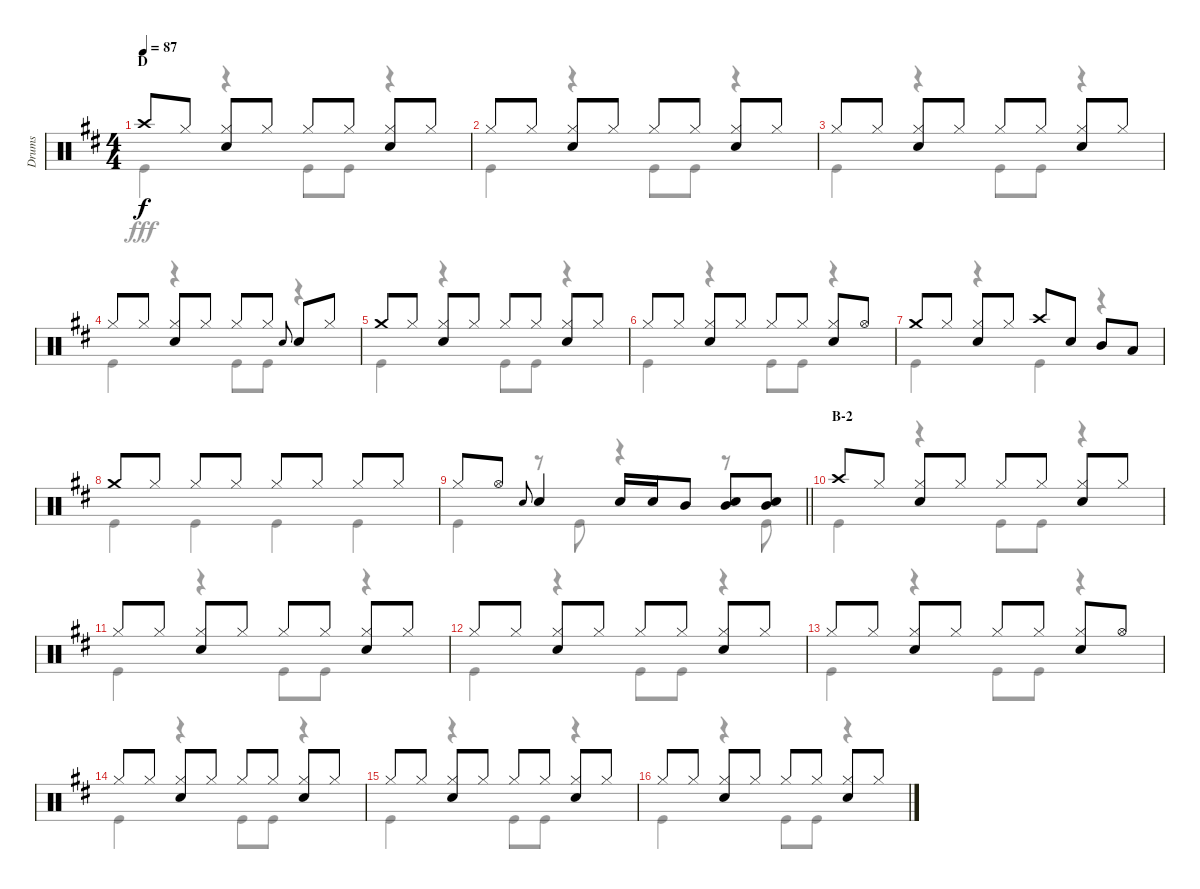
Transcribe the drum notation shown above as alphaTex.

\track ("Drums" "Drums") {instrument percussion}
\staff {score}
\articulation defaults
\voice
\ts (4 4)
\section ("" "D")
\tempo 87
\clef neutral
\ks d "Crash high (hit)".8{dy f} "Hi-Hat (closed)".8
("Hi-Hat (closed)" "Snare (hit) 2").8 "Hi-Hat (closed)".8 "Hi-Hat (closed)".8 "Hi-Hat (closed)".8 ("Hi-Hat (closed)" "Snare (hit) 2").8 "Hi-Hat (closed)".8 |
"Hi-Hat (closed)".8 "Hi-Hat (closed)".8 ("Hi-Hat (closed)" "Snare (hit) 2").8 "Hi-Hat (closed)".8 "Hi-Hat (closed)".8 "Hi-Hat (closed)".8 ("Hi-Hat (closed)" "Snare (hit) 2").8 "Hi-Hat (closed)".8 |
"Hi-Hat (closed)".8 "Hi-Hat (closed)".8 ("Hi-Hat (closed)" "Snare (hit) 2").8 "Hi-Hat (closed)".8 "Hi-Hat (closed)".8 "Hi-Hat (closed)".8 ("Hi-Hat (closed)" "Snare (hit) 2").8 "Hi-Hat (closed)".8 |
"Hi-Hat (closed)".8 "Hi-Hat (closed)".8 ("Hi-Hat (closed)" "Snare (hit) 2").8 "Hi-Hat (closed)".8 "Hi-Hat (closed)".8 "Hi-Hat (closed)".8 "Snare (hit) 2".8{gr onbeat} "Snare (hit) 2".8 "Hi-Hat (closed)".8 |
"Crash medium (hit)".8 "Hi-Hat (closed)".8 ("Hi-Hat (closed)" "Snare (hit) 2").8 "Hi-Hat (closed)".8 "Hi-Hat (closed)".8 "Hi-Hat (closed)".8 ("Hi-Hat (closed)" "Snare (hit) 2").8 "Hi-Hat (closed)".8 |
"Hi-Hat (closed)".8 "Hi-Hat (closed)".8 ("Hi-Hat (closed)" "Snare (hit) 2").8 "Hi-Hat (closed)".8 "Hi-Hat (closed)".8 "Hi-Hat (closed)".8 ("Hi-Hat (closed)" "Snare (hit) 2").8 "Hi-Hat (open)".8 |
"Crash medium (hit)".8 "Hi-Hat (closed)".8 ("Hi-Hat (closed)" "Snare (hit) 2").8 "Hi-Hat (closed)".8 "Crash high (hit)".8 "Snare (hit) 2".8 "Mid Tom (hit)".8 "Low Tom (hit)".8 |
"Crash medium (hit)".8 "Hi-Hat (closed)".8 "Hi-Hat (closed)".8 "Hi-Hat (closed)".8 "Hi-Hat (closed)".8 "Hi-Hat (closed)".8 "Hi-Hat (closed)".8 "Hi-Hat (closed)".8 |
\barLineRight lightlight "Hi-Hat (closed)".8 "Hi-Hat (open)".8 "Snare (hit) 2".8{gr onbeat} "Snare (hit) 2".4 "Snare (hit) 2".16 "Snare (hit) 2".16 "Mid Tom (hit)".8
("Mid Tom (hit)" "Snare (hit) 2").8 ("Mid Tom (hit)" "Snare (hit) 2").8 |
\section ("" "B-2")
"Crash high (hit)".8 "Hi-Hat (closed)".8 ("Hi-Hat (closed)" "Snare (hit) 2").8 "Hi-Hat (closed)".8 "Hi-Hat (closed)".8 "Hi-Hat (closed)".8 ("Hi-Hat (closed)" "Snare (hit) 2").8 "Hi-Hat (closed)".8 |
"Hi-Hat (closed)".8 "Hi-Hat (closed)".8 ("Hi-Hat (closed)" "Snare (hit) 2").8 "Hi-Hat (closed)".8 "Hi-Hat (closed)".8 "Hi-Hat (closed)".8 ("Hi-Hat (closed)" "Snare (hit) 2").8 "Hi-Hat (closed)".8 |
"Hi-Hat (closed)".8 "Hi-Hat (closed)".8 ("Hi-Hat (closed)" "Snare (hit) 2").8 "Hi-Hat (closed)".8 "Hi-Hat (closed)".8 "Hi-Hat (closed)".8 ("Hi-Hat (closed)" "Snare (hit) 2").8 "Hi-Hat (closed)".8 |
"Hi-Hat (closed)".8 "Hi-Hat (closed)".8 ("Hi-Hat (closed)" "Snare (hit) 2").8 "Hi-Hat (closed)".8 "Hi-Hat (closed)".8 "Hi-Hat (closed)".8 ("Hi-Hat (closed)" "Snare (hit) 2").8 "Hi-Hat (open)".8 |
"Hi-Hat (closed)".8 "Hi-Hat (closed)".8 ("Hi-Hat (closed)" "Snare (hit) 2").8 "Hi-Hat (closed)".8 "Hi-Hat (closed)".8 "Hi-Hat (closed)".8 ("Hi-Hat (closed)" "Snare (hit) 2").8 "Hi-Hat (closed)".8 |
"Hi-Hat (closed)".8 "Hi-Hat (closed)".8 ("Hi-Hat (closed)" "Snare (hit) 2").8 "Hi-Hat (closed)".8 "Hi-Hat (closed)".8 "Hi-Hat (closed)".8 ("Hi-Hat (closed)" "Snare (hit) 2").8 "Hi-Hat (closed)".8 |
"Hi-Hat (closed)".8 "Hi-Hat (closed)".8 ("Hi-Hat (closed)" "Snare (hit) 2").8 "Hi-Hat (closed)".8 "Hi-Hat (closed)".8 "Hi-Hat (closed)".8 ("Hi-Hat (closed)" "Snare (hit) 2").8 "Hi-Hat (closed)".8
\voice
\clef neutral
\ottava regular
\simile none
\ks d "Kick (hit)".4{dy fff}
r.4 "Kick (hit)".8 "Kick (hit)".8 r.4 |
"Kick (hit)".4 r.4 "Kick (hit)".8 "Kick (hit)".8 r.4 |
"Kick (hit)".4 r.4 "Kick (hit)".8 "Kick (hit)".8 r.4 |
"Kick (hit)".4 r.4 "Kick (hit)".8 "Kick (hit)".8 r.4 |
"Kick (hit)".4 r.4 "Kick (hit)".8 "Kick (hit)".8 r.4 |
"Kick (hit)".4 r.4 "Kick (hit)".8 "Kick (hit)".8 r.4 |
"Kick (hit)".4 r.4 "Kick (hit)".4 r.4 |
"Kick (hit)".4 "Kick (hit)".4 "Kick (hit)".4 "Kick (hit)".4 |
\barLineRight lightlight "Kick (hit)".4
r.8 "Kick (hit)".8 r.4 r.8 "Kick (hit)".8 |
"Kick (hit)".4 r.4 "Kick (hit)".8 "Kick (hit)".8 r.4 |
"Kick (hit)".4 r.4 "Kick (hit)".8 "Kick (hit)".8 r.4 |
"Kick (hit)".4 r.4 "Kick (hit)".8 "Kick (hit)".8 r.4 |
"Kick (hit)".4 r.4 "Kick (hit)".8 "Kick (hit)".8 r.4 |
"Kick (hit)".4 r.4 "Kick (hit)".8 "Kick (hit)".8 r.4 |
"Kick (hit)".4 r.4 "Kick (hit)".8 "Kick (hit)".8 r.4 |
"Kick (hit)".4 r.4 "Kick (hit)".8 "Kick (hit)".8 r.4
